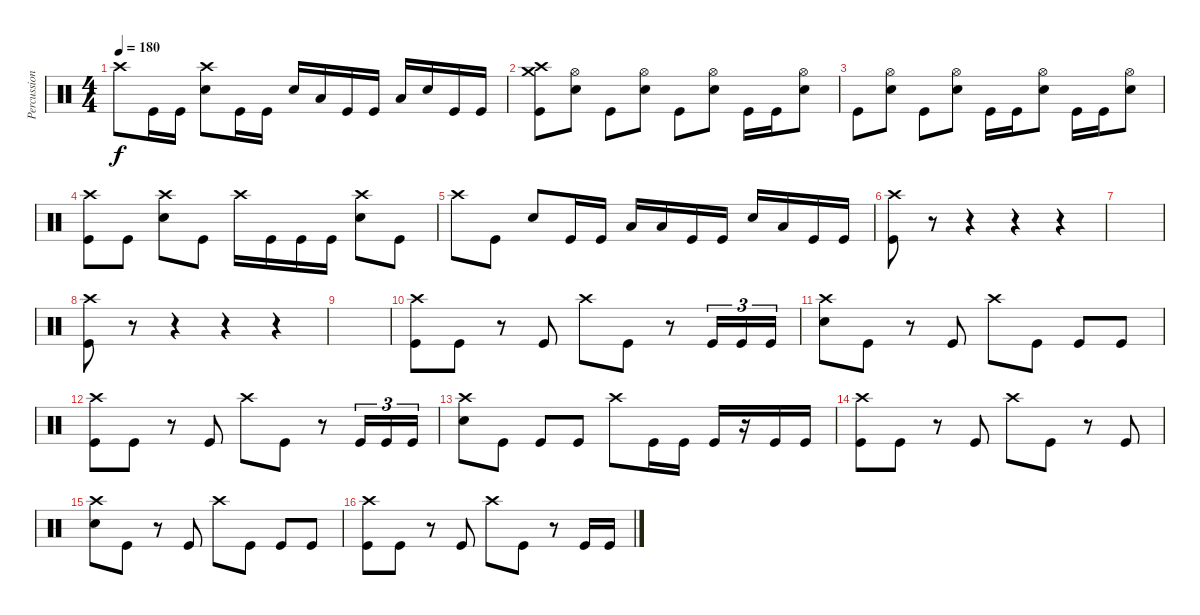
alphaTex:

\track ("Percussion" "Percussion") {instrument percussion}
\staff {score}
\articulation defaults
\ts (4 4)
\tempo 180
\clef neutral
\ks c "Crash high (hit)".8{dy f} "Kick (hit)".16 "Kick (hit)".16
("Crash high (hit)" "Electric Snare (hit)").8 "Kick (hit)".16 "Kick (hit)".16 "Electric Snare (hit)".16 "Low Tom (hit)".16 "Kick (hit)".16 "Kick (hit)".16 "Low Tom (hit)".16 "Electric Snare (hit)".16 "Kick (hit)".16 "Kick (hit)".16 |
("Crash medium (hit)" "Crash high (hit)" "Kick (hit)").8 ("Hi-Hat (open)" "Electric Snare (hit)").8 "Kick (hit)".8 ("Hi-Hat (open)" "Electric Snare (hit)").8 "Kick (hit)".8 ("Hi-Hat (open)" "Electric Snare (hit)").8 "Kick (hit)".16 "Kick (hit)".16 ("Hi-Hat (open)" "Electric Snare (hit)").8 |
"Kick (hit)".8 ("Hi-Hat (open)" "Electric Snare (hit)").8 "Kick (hit)".8 ("Hi-Hat (open)" "Electric Snare (hit)").8 "Kick (hit)".16 "Kick (hit)".16 ("Hi-Hat (open)" "Electric Snare (hit)").8 "Kick (hit)".16 "Kick (hit)".16 ("Hi-Hat (open)" "Electric Snare (hit)").8 |
("Crash high (hit)" "Kick (hit)").8 "Kick (hit)".8 ("Crash high (hit)" "Electric Snare (hit)").8 "Kick (hit)".8 "Crash high (hit)".16 "Kick (hit)".16 "Kick (hit)".16 "Kick (hit)".16 ("Crash high (hit)" "Electric Snare (hit)").8 "Kick (hit)".8 |
"Crash high (hit)".8 "Kick (hit)".8 "Electric Snare (hit)".8 "Kick (hit)".16 "Kick (hit)".16 "Low Tom (hit)".16 "Low Tom (hit)".16 "Kick (hit)".16 "Kick (hit)".16 "Electric Snare (hit)".16 "Low Tom (hit)".16 "Kick (hit)".16 "Kick (hit)".16 |
("Crash high (hit)" "Kick (hit)").8 r.8{volume 0} r.4{volume 16} r.4 r.4 |
|
("Crash high (hit)" "Kick (hit)").8 r.8{volume 0} r.4{volume 16} r.4 r.4 |
|
("Crash high (hit)" "Kick (hit)").8 "Kick (hit)".8 r.8 "Kick (hit)".8 "Crash high (hit)".8 "Kick (hit)".8 r.8 "Kick (hit)".16{tu (3 2)} "Kick (hit)".16{tu (3 2)} "Kick (hit)".16{tu (3 2)} |
("Crash high (hit)" "Electric Snare (hit)").8 "Kick (hit)".8 r.8 "Kick (hit)".8 "Crash high (hit)".8 "Kick (hit)".8 "Kick (hit)".8 "Kick (hit)".8 |
("Crash high (hit)" "Kick (hit)").8 "Kick (hit)".8 r.8 "Kick (hit)".8 "Crash high (hit)".8 "Kick (hit)".8 r.8 "Kick (hit)".16{tu (3 2)} "Kick (hit)".16{tu (3 2)} "Kick (hit)".16{tu (3 2)} |
("Crash high (hit)" "Electric Snare (hit)").8 "Kick (hit)".8 "Kick (hit)".8 "Kick (hit)".8 "Crash high (hit)".8 "Kick (hit)".16 "Kick (hit)".16 "Kick (hit)".16 r.16 "Kick (hit)".16 "Kick (hit)".16 |
("Crash high (hit)" "Kick (hit)").8 "Kick (hit)".8 r.8 "Kick (hit)".8 "Crash high (hit)".8 "Kick (hit)".8 r.8 "Kick (hit)".8 |
("Crash high (hit)" "Electric Snare (hit)").8 "Kick (hit)".8 r.8 "Kick (hit)".8 "Crash high (hit)".8 "Kick (hit)".8 "Kick (hit)".8 "Kick (hit)".8 |
("Crash high (hit)" "Kick (hit)").8 "Kick (hit)".8 r.8 "Kick (hit)".8 "Crash high (hit)".8 "Kick (hit)".8 r.8 "Kick (hit)".16 "Kick (hit)".16
